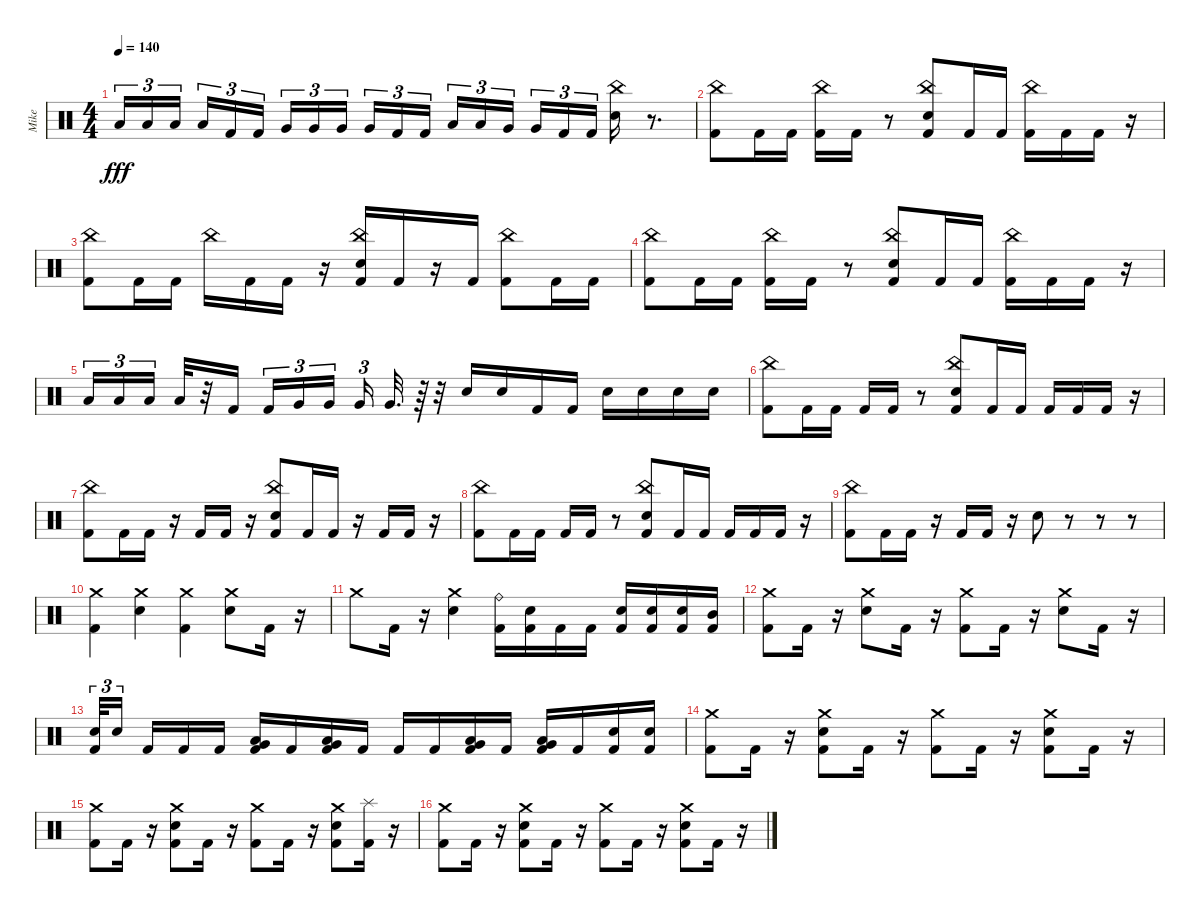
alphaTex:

\track ("Mike" "Mike") {instrument percussion}
\staff {score}
\articulation defaults
\ts (4 4)
\tempo 140
\clef neutral
\ks c "Low Tom (hit)".16{tu (3 2) dy fff} "Low Tom (hit)".16{tu (3 2)} "Low Tom (hit)".16{tu (3 2) beam splitsecondary} "Low Tom (hit)".16{tu (3 2)} "Kick (hit) 2".16{tu (3 2)} "Kick (hit) 2".16{tu (3 2)} "Very Low Tom (hit)".16{tu (3 2)} "Very Low Tom (hit)".16{tu (3 2)} "Very Low Tom (hit)".16{tu (3 2) beam splitsecondary} "Very Low Tom (hit)".16{tu (3 2)} "Kick (hit) 2".16{tu (3 2)} "Kick (hit) 2".16{tu (3 2)} "Low Tom (hit)".16{tu (3 2)} "Low Tom (hit)".16{tu (3 2)} "Very Low Tom (hit)".16{tu (3 2) beam splitsecondary} "Very Low Tom (hit)".16{tu (3 2)} "Kick (hit) 2".16{tu (3 2)} "Kick (hit) 2".16{tu (3 2)}
("Snare (hit) 2" "China (hit)").16 r.8{d} |
("Kick (hit) 2" "China (hit)").8 "Kick (hit) 2".16 "Kick (hit) 2".16 ("Kick (hit) 2" "China (hit)").16 "Kick (hit) 2".16 r.8 ("Kick (hit) 2" "Electric Snare (hit)" "China (hit)").8 "Kick (hit) 2".16 "Kick (hit) 2".16 ("Kick (hit) 2" "China (hit)").16 "Kick (hit) 2".16 "Kick (hit) 2".16 r.16 |
("Kick (hit) 2" "China (hit)").8 "Kick (hit) 2".16 "Kick (hit) 2".16 "China (hit)".16 "Kick (hit) 2".16 "Kick (hit) 2".16 r.16 ("Kick (hit) 2" "Electric Snare (hit)" "China (hit)").16 "Kick (hit) 2".16 r.16 "Kick (hit) 2".16 ("Kick (hit) 2" "China (hit)").8 "Kick (hit) 2".16 "Kick (hit) 2".16 |
("Kick (hit) 2" "China (hit)").8 "Kick (hit) 2".16 "Kick (hit) 2".16 ("Kick (hit) 2" "China (hit)").16 "Kick (hit) 2".16 r.8 ("Kick (hit) 2" "Electric Snare (hit)" "China (hit)").8 "Kick (hit) 2".16 "Kick (hit) 2".16 ("Kick (hit) 2" "China (hit)").16 "Kick (hit) 2".16 "Kick (hit) 2".16 r.16 |
"Low Tom (hit)".16{tu (3 2)} "Low Tom (hit)".16{tu (3 2)} "Low Tom (hit)".16{tu (3 2) beam splitsecondary} "Low Tom (hit)".32 r.32 "Kick (hit) 2".16 "Kick (hit) 2".16{tu (3 2)} "Very Low Tom (hit)".16{tu (3 2)} "Very Low Tom (hit)".16{tu (3 2) beam splitsecondary} "Very Low Tom (hit)".16{tu (3 2)} "Very Low Tom (hit)".32{d} r.64 r.32 "Snare (hit) 2".16 "Snare (hit) 2".16 "Kick (hit) 2".16 "Kick (hit) 2".16 "Snare (hit) 2".16 "Snare (hit) 2".16 "Snare (hit) 2".16 "Snare (hit) 2".16 |
("Kick (hit) 2" "China (hit)").8 "Kick (hit) 2".16 "Kick (hit) 2".16 "Kick (hit) 2".16 "Kick (hit) 2".16 r.8 ("Kick (hit) 2" "Electric Snare (hit)" "China (hit)").8 "Kick (hit) 2".16 "Kick (hit) 2".16 "Kick (hit) 2".16 "Kick (hit) 2".16 "Kick (hit) 2".16 r.16 |
("Kick (hit) 2" "China (hit)").8 "Kick (hit) 2".16 "Kick (hit) 2".16 r.16 "Kick (hit) 2".16 "Kick (hit) 2".16 r.16 ("Kick (hit) 2" "Electric Snare (hit)" "China (hit)").8 "Kick (hit) 2".16 "Kick (hit) 2".16 r.16 "Kick (hit) 2".16 "Kick (hit) 2".16 r.16 |
("Kick (hit) 2" "China (hit)").8 "Kick (hit) 2".16 "Kick (hit) 2".16 "Kick (hit) 2".16 "Kick (hit) 2".16 r.8 ("Kick (hit) 2" "Electric Snare (hit)" "China (hit)").8 "Kick (hit) 2".16 "Kick (hit) 2".16 "Kick (hit) 2".16 "Kick (hit) 2".16 "Kick (hit) 2".16 r.16 |
("Kick (hit) 2" "China (hit)").8 "Kick (hit) 2".16 "Kick (hit) 2".16 r.16 "Kick (hit) 2".16 "Kick (hit) 2".16 r.16 "Electric Snare (hit)".8 r.8 r.8 r.8 |
("Kick (hit) 2" "Crash medium (hit)").4 ("Electric Snare (hit)" "Crash medium (hit)").4 ("Kick (hit) 2" "Crash medium (hit)").4 ("Electric Snare (hit)" "Crash medium (hit)").8 "Kick (hit) 2".16 r.16 |
"Crash medium (hit)".8 "Kick (hit) 2".16 r.16 ("Electric Snare (hit)" "Crash medium (hit)").4 ("Kick (hit) 2" "Ride (bell)").16 ("Kick (hit) 2" "Electric Snare (hit)").16 "Kick (hit) 2".16 "Kick (hit) 2".16 ("Kick (hit) 2" "Electric Snare (hit)").16 ("Kick (hit) 2" "Electric Snare (hit)").16 ("Kick (hit) 2" "Electric Snare (hit)").16 ("Kick (hit) 2" "Mid Tom (hit)").16 |
("Kick (hit) 2" "Crash medium (hit)").8 "Kick (hit) 2".16 r.16 ("Electric Snare (hit)" "Crash medium (hit)").8 "Kick (hit) 2".16 r.16 ("Kick (hit) 2" "Crash medium (hit)").8 "Kick (hit) 2".16 r.16 ("Electric Snare (hit)" "Crash medium (hit)").8 "Kick (hit) 2".16 r.16 |
("Kick (hit) 2" "Electric Snare (hit)").32{tu (3 2)} "Electric Snare (hit)".16{tu (3 2) beam splitsecondary} "Kick (hit) 2".16 "Kick (hit) 2".16 "Kick (hit) 2".16 ("Kick (hit) 2" "Low Tom (hit)" "Very Low Tom (hit)").16 "Kick (hit) 2".16 ("Kick (hit) 2" "Low Tom (hit)" "Very Low Tom (hit)").16 "Kick (hit) 2".16 "Kick (hit) 2".16 "Kick (hit) 2".16 ("Kick (hit) 2" "Low Tom (hit)" "Very Low Tom (hit)").16 "Kick (hit) 2".16 ("Kick (hit) 2" "Low Tom (hit)" "Very Low Tom (hit)").16 "Kick (hit) 2".16 ("Kick (hit) 2" "Electric Snare (hit)").16 ("Kick (hit) 2" "Electric Snare (hit)").16 |
("Kick (hit) 2" "Crash medium (hit)").8 "Kick (hit) 2".16 r.16 ("Kick (hit) 2" "Electric Snare (hit)" "Crash medium (hit)").8 "Kick (hit) 2".16 r.16 ("Kick (hit) 2" "Crash medium (hit)").8 "Kick (hit) 2".16 r.16 ("Kick (hit) 2" "Electric Snare (hit)" "Crash medium (hit)").8 "Kick (hit) 2".16 r.16 |
("Kick (hit) 2" "Crash medium (hit)").8 "Kick (hit) 2".16 r.16 ("Kick (hit) 2" "Electric Snare (hit)" "Crash medium (hit)").8 "Kick (hit) 2".16 r.16 ("Kick (hit) 2" "Crash medium (hit)").8 "Kick (hit) 2".16 r.16 ("Kick (hit) 2" "Electric Snare (hit)" "Crash medium (hit)").8 ("Kick (hit) 2" "Splash (hit)").16 r.16 |
("Kick (hit) 2" "Crash medium (hit)").8 "Kick (hit) 2".16 r.16 ("Kick (hit) 2" "Electric Snare (hit)" "Crash medium (hit)").8 "Kick (hit) 2".16 r.16 ("Kick (hit) 2" "Crash medium (hit)").8 "Kick (hit) 2".16 r.16 ("Kick (hit) 2" "Electric Snare (hit)" "Crash medium (hit)").8 "Kick (hit) 2".16 r.16
